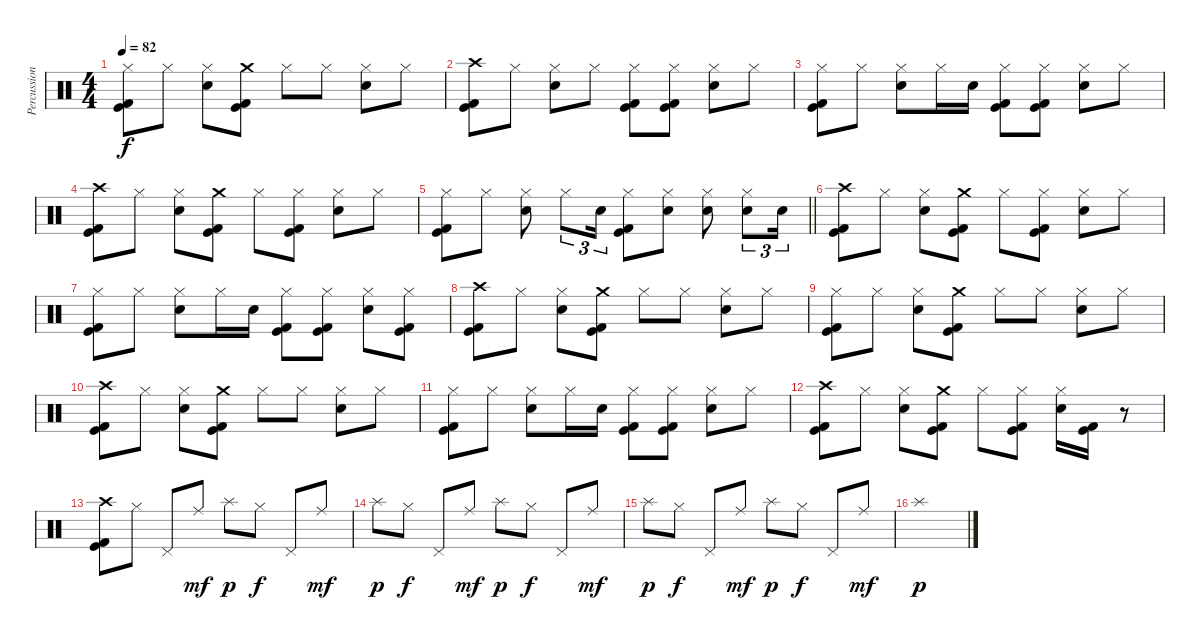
\track ("Percussion" "Percussion") {instrument percussion}
\staff {score}
\articulation defaults
\ts (4 4)
\tempo 82
\clef neutral
\ks c
("Hi-Hat (closed)" "Kick (hit)" "Kick (hit) 2").8{dy f} "Hi-Hat (closed)".8 ("Hi-Hat (closed)" "Electric Snare (hit)").8 ("Crash medium (hit)" "Kick (hit)" "Kick (hit) 2").8 "Hi-Hat (closed)".8 "Hi-Hat (closed)".8 ("Hi-Hat (closed)" "Electric Snare (hit)").8 "Hi-Hat (closed)".8 |
("Crash high (hit)" "Kick (hit)" "Kick (hit) 2").8 "Hi-Hat (closed)".8 ("Hi-Hat (closed)" "Electric Snare (hit)").8 "Hi-Hat (closed)".8 ("Hi-Hat (closed)" "Kick (hit)" "Kick (hit) 2").8 ("Hi-Hat (closed)" "Kick (hit)" "Kick (hit) 2").8 ("Hi-Hat (closed)" "Electric Snare (hit)").8 "Hi-Hat (closed)".8 |
("Hi-Hat (closed)" "Kick (hit)" "Kick (hit) 2").8 "Hi-Hat (closed)".8 ("Hi-Hat (closed)" "Electric Snare (hit)").8 "Hi-Hat (closed)".16 "Electric Snare (hit)".16 ("Hi-Hat (closed)" "Kick (hit)" "Kick (hit) 2").8 ("Hi-Hat (closed)" "Kick (hit)" "Kick (hit) 2").8 ("Hi-Hat (closed)" "Electric Snare (hit)").8 "Hi-Hat (closed)".8 |
("Crash high (hit)" "Kick (hit)" "Kick (hit) 2").8 "Hi-Hat (closed)".8 ("Hi-Hat (closed)" "Electric Snare (hit)").8 ("Crash medium (hit)" "Kick (hit)" "Kick (hit) 2").8 "Hi-Hat (closed)".8 ("Hi-Hat (closed)" "Kick (hit)" "Kick (hit) 2").8 ("Hi-Hat (closed)" "Electric Snare (hit)").8 "Hi-Hat (closed)".8 |
\barLineRight lightlight
("Hi-Hat (closed)" "Kick (hit)" "Kick (hit) 2").8 "Hi-Hat (closed)".8 ("Hi-Hat (closed)" "Electric Snare (hit)").8 "Hi-Hat (closed)".8{tu (3 2)} "Electric Snare (hit)".16{tu (3 2)} ("Hi-Hat (closed)" "Kick (hit)" "Kick (hit) 2").8 ("Hi-Hat (closed)" "Electric Snare (hit)").8 ("Hi-Hat (closed)" "Electric Snare (hit)").8 ("Hi-Hat (closed)" "Electric Snare (hit)").8{tu (3 2)} "Electric Snare (hit)".16{tu (3 2)} |
\section ("" "")
("Crash high (hit)" "Kick (hit)" "Kick (hit) 2").8 "Hi-Hat (closed)".8 ("Hi-Hat (closed)" "Electric Snare (hit)").8 ("Crash medium (hit)" "Kick (hit)" "Kick (hit) 2").8 "Hi-Hat (closed)".8 ("Hi-Hat (closed)" "Kick (hit)" "Kick (hit) 2").8 ("Hi-Hat (closed)" "Electric Snare (hit)").8 "Hi-Hat (closed)".8 |
("Hi-Hat (closed)" "Kick (hit)" "Kick (hit) 2").8 "Hi-Hat (closed)".8 ("Hi-Hat (closed)" "Electric Snare (hit)").8 "Hi-Hat (closed)".16 "Electric Snare (hit)".16 ("Hi-Hat (closed)" "Kick (hit)" "Kick (hit) 2").8 ("Hi-Hat (closed)" "Kick (hit)" "Kick (hit) 2").8 ("Hi-Hat (closed)" "Electric Snare (hit)").8 ("Hi-Hat (closed)" "Kick (hit)" "Kick (hit) 2").8 |
("Crash high (hit)" "Kick (hit)" "Kick (hit) 2").8 "Hi-Hat (closed)".8 ("Hi-Hat (closed)" "Electric Snare (hit)").8 ("Crash medium (hit)" "Kick (hit)" "Kick (hit) 2").8 "Hi-Hat (closed)".8 "Hi-Hat (closed)".8 ("Hi-Hat (closed)" "Electric Snare (hit)").8 "Hi-Hat (closed)".8 |
("Hi-Hat (closed)" "Kick (hit)" "Kick (hit) 2").8 "Hi-Hat (closed)".8 ("Hi-Hat (closed)" "Electric Snare (hit)").8 ("Crash medium (hit)" "Kick (hit)" "Kick (hit) 2").8 "Hi-Hat (closed)".8 "Hi-Hat (closed)".8 ("Hi-Hat (closed)" "Electric Snare (hit)").8 "Hi-Hat (closed)".8 |
("Crash high (hit)" "Kick (hit)" "Kick (hit) 2").8 "Hi-Hat (closed)".8 ("Hi-Hat (closed)" "Electric Snare (hit)").8 ("Crash medium (hit)" "Kick (hit)" "Kick (hit) 2").8 "Hi-Hat (closed)".8 "Hi-Hat (closed)".8 ("Hi-Hat (closed)" "Electric Snare (hit)").8 "Hi-Hat (closed)".8 |
("Hi-Hat (closed)" "Kick (hit)" "Kick (hit) 2").8 "Hi-Hat (closed)".8 ("Hi-Hat (closed)" "Electric Snare (hit)").8 "Hi-Hat (closed)".16 "Electric Snare (hit)".16 ("Hi-Hat (closed)" "Kick (hit)" "Kick (hit) 2").8 ("Hi-Hat (closed)" "Kick (hit)" "Kick (hit) 2").8 ("Hi-Hat (closed)" "Electric Snare (hit)").8 "Hi-Hat (closed)".8 |
("Crash high (hit)" "Kick (hit)" "Kick (hit) 2").8 "Hi-Hat (closed)".8 ("Hi-Hat (closed)" "Electric Snare (hit)").8 ("Crash medium (hit)" "Kick (hit)" "Kick (hit) 2").8 "Hi-Hat (closed)".8 ("Hi-Hat (closed)" "Kick (hit)" "Kick (hit) 2").8 ("Hi-Hat (closed)" "Electric Snare (hit)").16 ("Kick (hit)" "Kick (hit) 2").16 r.8 |
("Crash high (hit)" "Kick (hit)" "Kick (hit) 2").8 "Hi-Hat (closed)".8 "Pedal Hi-Hat (hit)".8 "Ride (middle)".8{dy mf} "Splash (hit)".8{dy p} "Hi-Hat (closed)".8{dy f} "Pedal Hi-Hat (hit)".8 "Ride (middle)".8{dy mf} |
"Splash (hit)".8{dy p} "Hi-Hat (closed)".8{dy f} "Pedal Hi-Hat (hit)".8 "Ride (middle)".8{dy mf} "Splash (hit)".8{dy p} "Hi-Hat (closed)".8{dy f} "Pedal Hi-Hat (hit)".8 "Ride (middle)".8{dy mf} |
"Splash (hit)".8{dy p} "Hi-Hat (closed)".8{dy f} "Pedal Hi-Hat (hit)".8 "Ride (middle)".8{dy mf} "Splash (hit)".8{dy p} "Hi-Hat (closed)".8{dy f} "Pedal Hi-Hat (hit)".8 "Ride (middle)".8{dy mf} |
"Splash (hit)".1{dy p}
